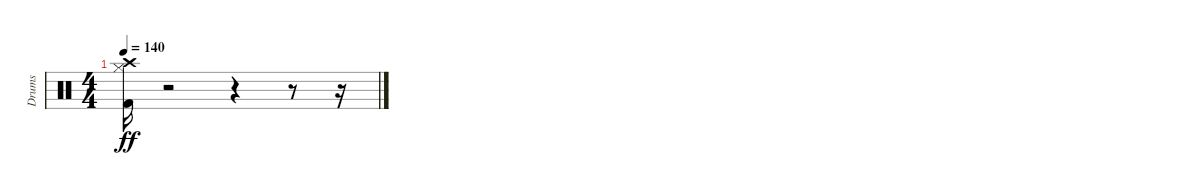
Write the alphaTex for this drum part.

\track ("Drums" "Drums") {instrument percussion}
\staff {score}
\articulation defaults
\ts (4 4)
\tempo 140
\clef neutral
\ks c
("Crash high (hit)" "Hi-Hat (closed)" "Kick (hit) 2").16{dy ff} r.2 r.4 r.8 r.16
